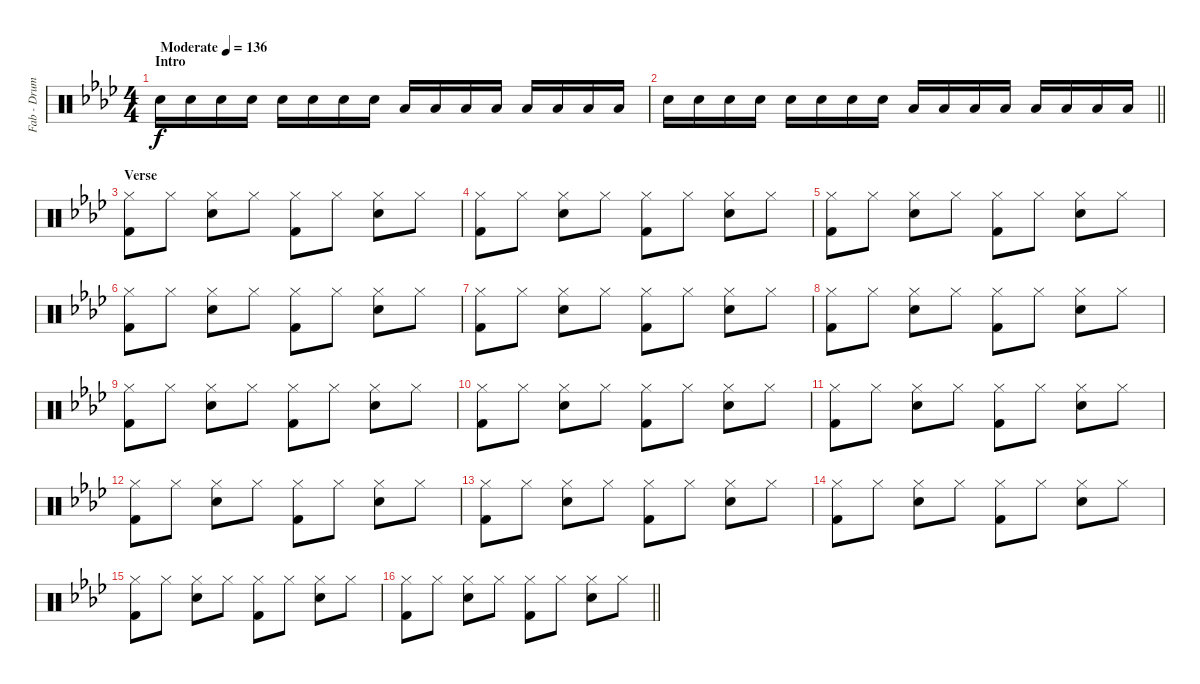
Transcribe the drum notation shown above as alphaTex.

\track ("Fab - Drums MIDI" "Fab - Drum") {instrument percussion}
\staff {score}
\articulation defaults
\ts (4 4)
\section ("" "Intro")
\tempo (136 "Moderate")
\clef neutral
\ks ab "Snare (hit) 2".16{dy f} "Snare (hit) 2".16 "Snare (hit) 2".16 "Snare (hit) 2".16 "Snare (hit) 2".16 "Snare (hit) 2".16 "Snare (hit) 2".16 "Snare (hit) 2".16 "Low Tom (hit)".16 "Low Tom (hit)".16 "Low Tom (hit)".16 "Low Tom (hit)".16 "Low Tom (hit)".16 "Low Tom (hit)".16 "Low Tom (hit)".16 "Low Tom (hit)".16
|
\barLineRight lightlight "Snare (hit) 2".16 "Snare (hit) 2".16 "Snare (hit) 2".16 "Snare (hit) 2".16 "Snare (hit) 2".16 "Snare (hit) 2".16 "Snare (hit) 2".16 "Snare (hit) 2".16 "Low Tom (hit)".16 "Low Tom (hit)".16 "Low Tom (hit)".16 "Low Tom (hit)".16 "Low Tom (hit)".16 "Low Tom (hit)".16 "Low Tom (hit)".16 "Low Tom (hit)".16
|
\section ("" "Verse")
("Hi-Hat (closed)" "Kick (hit) 2").8 "Hi-Hat (closed)".8 ("Hi-Hat (closed)" "Snare (hit) 2").8 "Hi-Hat (closed)".8 ("Hi-Hat (closed)" "Kick (hit) 2").8 "Hi-Hat (closed)".8 ("Hi-Hat (closed)" "Snare (hit) 2").8 "Hi-Hat (closed)".8 |
("Hi-Hat (closed)" "Kick (hit) 2").8 "Hi-Hat (closed)".8 ("Hi-Hat (closed)" "Snare (hit) 2").8 "Hi-Hat (closed)".8 ("Hi-Hat (closed)" "Kick (hit) 2").8 "Hi-Hat (closed)".8 ("Hi-Hat (closed)" "Snare (hit) 2").8 "Hi-Hat (closed)".8 |
("Hi-Hat (closed)" "Kick (hit) 2").8 "Hi-Hat (closed)".8 ("Hi-Hat (closed)" "Snare (hit) 2").8 "Hi-Hat (closed)".8 ("Hi-Hat (closed)" "Kick (hit) 2").8 "Hi-Hat (closed)".8 ("Hi-Hat (closed)" "Snare (hit) 2").8 "Hi-Hat (closed)".8 |
("Hi-Hat (closed)" "Kick (hit) 2").8 "Hi-Hat (closed)".8 ("Hi-Hat (closed)" "Snare (hit) 2").8 "Hi-Hat (closed)".8 ("Hi-Hat (closed)" "Kick (hit) 2").8 "Hi-Hat (closed)".8 ("Hi-Hat (closed)" "Snare (hit) 2").8 "Hi-Hat (closed)".8 |
("Hi-Hat (closed)" "Kick (hit) 2").8 "Hi-Hat (closed)".8 ("Hi-Hat (closed)" "Snare (hit) 2").8 "Hi-Hat (closed)".8 ("Hi-Hat (closed)" "Kick (hit) 2").8 "Hi-Hat (closed)".8 ("Hi-Hat (closed)" "Snare (hit) 2").8 "Hi-Hat (closed)".8 |
("Hi-Hat (closed)" "Kick (hit) 2").8 "Hi-Hat (closed)".8 ("Hi-Hat (closed)" "Snare (hit) 2").8 "Hi-Hat (closed)".8 ("Hi-Hat (closed)" "Kick (hit) 2").8 "Hi-Hat (closed)".8 ("Hi-Hat (closed)" "Snare (hit) 2").8 "Hi-Hat (closed)".8 |
("Hi-Hat (closed)" "Kick (hit) 2").8 "Hi-Hat (closed)".8 ("Hi-Hat (closed)" "Snare (hit) 2").8 "Hi-Hat (closed)".8 ("Hi-Hat (closed)" "Kick (hit) 2").8 "Hi-Hat (closed)".8 ("Hi-Hat (closed)" "Snare (hit) 2").8 "Hi-Hat (closed)".8 |
("Hi-Hat (closed)" "Kick (hit) 2").8 "Hi-Hat (closed)".8 ("Hi-Hat (closed)" "Snare (hit) 2").8 "Hi-Hat (closed)".8 ("Hi-Hat (closed)" "Kick (hit) 2").8 "Hi-Hat (closed)".8 ("Hi-Hat (closed)" "Snare (hit) 2").8 "Hi-Hat (closed)".8 |
("Hi-Hat (closed)" "Kick (hit) 2").8 "Hi-Hat (closed)".8 ("Hi-Hat (closed)" "Snare (hit) 2").8 "Hi-Hat (closed)".8 ("Hi-Hat (closed)" "Kick (hit) 2").8 "Hi-Hat (closed)".8 ("Hi-Hat (closed)" "Snare (hit) 2").8 "Hi-Hat (closed)".8 |
("Hi-Hat (closed)" "Kick (hit) 2").8 "Hi-Hat (closed)".8 ("Hi-Hat (closed)" "Snare (hit) 2").8 "Hi-Hat (closed)".8 ("Hi-Hat (closed)" "Kick (hit) 2").8 "Hi-Hat (closed)".8 ("Hi-Hat (closed)" "Snare (hit) 2").8 "Hi-Hat (closed)".8 |
("Hi-Hat (closed)" "Kick (hit) 2").8 "Hi-Hat (closed)".8 ("Hi-Hat (closed)" "Snare (hit) 2").8 "Hi-Hat (closed)".8 ("Hi-Hat (closed)" "Kick (hit) 2").8 "Hi-Hat (closed)".8 ("Hi-Hat (closed)" "Snare (hit) 2").8 "Hi-Hat (closed)".8 |
("Hi-Hat (closed)" "Kick (hit) 2").8 "Hi-Hat (closed)".8 ("Hi-Hat (closed)" "Snare (hit) 2").8 "Hi-Hat (closed)".8 ("Hi-Hat (closed)" "Kick (hit) 2").8 "Hi-Hat (closed)".8 ("Hi-Hat (closed)" "Snare (hit) 2").8 "Hi-Hat (closed)".8 |
("Hi-Hat (closed)" "Kick (hit) 2").8 "Hi-Hat (closed)".8 ("Hi-Hat (closed)" "Snare (hit) 2").8 "Hi-Hat (closed)".8 ("Hi-Hat (closed)" "Kick (hit) 2").8 "Hi-Hat (closed)".8 ("Hi-Hat (closed)" "Snare (hit) 2").8 "Hi-Hat (closed)".8 |
\barLineRight lightlight
("Hi-Hat (closed)" "Kick (hit) 2").8 "Hi-Hat (closed)".8 ("Hi-Hat (closed)" "Snare (hit) 2").8 "Hi-Hat (closed)".8 ("Hi-Hat (closed)" "Kick (hit) 2").8 "Hi-Hat (closed)".8 ("Hi-Hat (closed)" "Snare (hit) 2").8 "Hi-Hat (closed)".8
